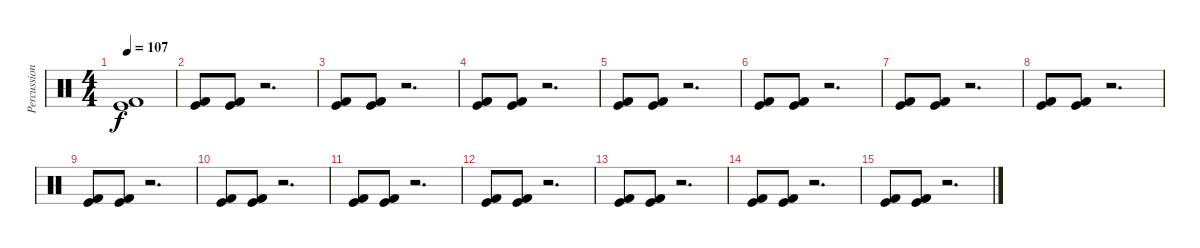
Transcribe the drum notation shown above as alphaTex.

\track ("Percussions" "Percussion") {instrument percussion}
\staff {score}
\articulation defaults
\ts (4 4)
\tempo 107
\clef neutral
\ks c
("Kick (hit)" "Kick (hit) 2").1{dy f} |
("Kick (hit)" "Kick (hit) 2").8 ("Kick (hit)" "Kick (hit) 2").8 r.2{d} |
("Kick (hit)" "Kick (hit) 2").8 ("Kick (hit)" "Kick (hit) 2").8 r.2{d} |
("Kick (hit)" "Kick (hit) 2").8 ("Kick (hit)" "Kick (hit) 2").8 r.2{d} |
("Kick (hit)" "Kick (hit) 2").8 ("Kick (hit)" "Kick (hit) 2").8 r.2{d} |
("Kick (hit)" "Kick (hit) 2").8 ("Kick (hit)" "Kick (hit) 2").8 r.2{d} |
("Kick (hit)" "Kick (hit) 2").8 ("Kick (hit)" "Kick (hit) 2").8 r.2{d} |
("Kick (hit)" "Kick (hit) 2").8 ("Kick (hit)" "Kick (hit) 2").8 r.2{d} |
("Kick (hit)" "Kick (hit) 2").8 ("Kick (hit)" "Kick (hit) 2").8 r.2{d} |
("Kick (hit)" "Kick (hit) 2").8 ("Kick (hit)" "Kick (hit) 2").8 r.2{d} |
("Kick (hit)" "Kick (hit) 2").8 ("Kick (hit)" "Kick (hit) 2").8 r.2{d} |
("Kick (hit)" "Kick (hit) 2").8 ("Kick (hit)" "Kick (hit) 2").8 r.2{d} |
("Kick (hit)" "Kick (hit) 2").8 ("Kick (hit)" "Kick (hit) 2").8 r.2{d} |
("Kick (hit)" "Kick (hit) 2").8 ("Kick (hit)" "Kick (hit) 2").8 r.2{d} |
("Kick (hit)" "Kick (hit) 2").8 ("Kick (hit)" "Kick (hit) 2").8 r.2{d}
